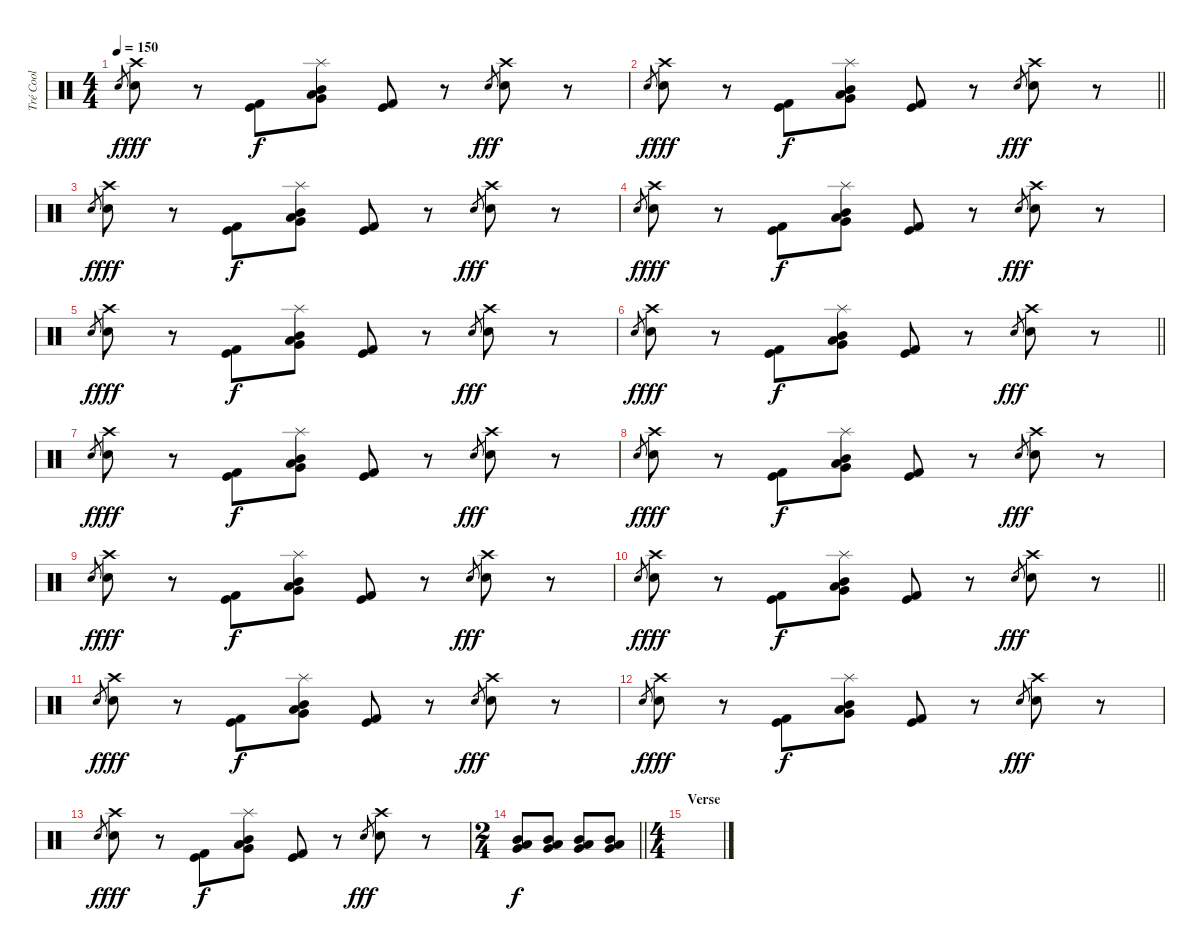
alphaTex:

\track ("Tré Cool" "Tré Cool") {instrument percussion}
\staff {score}
\articulation defaults
\ts (4 4)
\tempo 150
\clef neutral
\ks c "Snare (hit) 2".8{gr dy f}
("Crash high (hit)" "Snare (hit) 2").8{dy fff} r.8 ("Kick (hit)" "Kick (hit) 2").8{dy f} ("Splash (hit)" "Mid Tom (hit)" "Low Tom (hit)" "Very Low Tom (hit)").8 ("Kick (hit)" "Kick (hit) 2").8 r.8 "Snare (hit) 2".8{gr dy fff} ("Crash high (hit)" "Snare (hit) 2").8 r.8 |
\barLineRight lightlight "Snare (hit) 2".8{gr dy f}
("Crash high (hit)" "Snare (hit) 2").8{dy fff} r.8 ("Kick (hit)" "Kick (hit) 2").8{dy f} ("Splash (hit)" "Mid Tom (hit)" "Low Tom (hit)" "Very Low Tom (hit)").8 ("Kick (hit)" "Kick (hit) 2").8 r.8 "Snare (hit) 2".8{gr dy fff} ("Crash high (hit)" "Snare (hit) 2").8 r.8 |
"Snare (hit) 2".8{gr dy f} ("Crash high (hit)" "Snare (hit) 2").8{dy fff} r.8 ("Kick (hit)" "Kick (hit) 2").8{dy f} ("Splash (hit)" "Mid Tom (hit)" "Low Tom (hit)" "Very Low Tom (hit)").8 ("Kick (hit)" "Kick (hit) 2").8 r.8 "Snare (hit) 2".8{gr dy fff} ("Crash high (hit)" "Snare (hit) 2").8 r.8 |
"Snare (hit) 2".8{gr dy f} ("Crash high (hit)" "Snare (hit) 2").8{dy fff} r.8 ("Kick (hit)" "Kick (hit) 2").8{dy f} ("Splash (hit)" "Mid Tom (hit)" "Low Tom (hit)" "Very Low Tom (hit)").8 ("Kick (hit)" "Kick (hit) 2").8 r.8 "Snare (hit) 2".8{gr dy fff} ("Crash high (hit)" "Snare (hit) 2").8 r.8 |
"Snare (hit) 2".8{gr dy f} ("Crash high (hit)" "Snare (hit) 2").8{dy fff} r.8 ("Kick (hit)" "Kick (hit) 2").8{dy f} ("Splash (hit)" "Mid Tom (hit)" "Low Tom (hit)" "Very Low Tom (hit)").8 ("Kick (hit)" "Kick (hit) 2").8 r.8 "Snare (hit) 2".8{gr dy fff} ("Crash high (hit)" "Snare (hit) 2").8 r.8 |
\barLineRight lightlight "Snare (hit) 2".8{gr dy f}
("Crash high (hit)" "Snare (hit) 2").8{dy fff} r.8 ("Kick (hit)" "Kick (hit) 2").8{dy f} ("Splash (hit)" "Mid Tom (hit)" "Low Tom (hit)" "Very Low Tom (hit)").8 ("Kick (hit)" "Kick (hit) 2").8 r.8 "Snare (hit) 2".8{gr dy fff} ("Crash high (hit)" "Snare (hit) 2").8 r.8 |
"Snare (hit) 2".8{gr dy f} ("Crash high (hit)" "Snare (hit) 2").8{dy fff} r.8 ("Kick (hit)" "Kick (hit) 2").8{dy f} ("Splash (hit)" "Mid Tom (hit)" "Low Tom (hit)" "Very Low Tom (hit)").8 ("Kick (hit)" "Kick (hit) 2").8 r.8 "Snare (hit) 2".8{gr dy fff} ("Crash high (hit)" "Snare (hit) 2").8 r.8 |
"Snare (hit) 2".8{gr dy f} ("Crash high (hit)" "Snare (hit) 2").8{dy fff} r.8 ("Kick (hit)" "Kick (hit) 2").8{dy f} ("Splash (hit)" "Mid Tom (hit)" "Low Tom (hit)" "Very Low Tom (hit)").8 ("Kick (hit)" "Kick (hit) 2").8 r.8 "Snare (hit) 2".8{gr dy fff} ("Crash high (hit)" "Snare (hit) 2").8 r.8 |
"Snare (hit) 2".8{gr dy f} ("Crash high (hit)" "Snare (hit) 2").8{dy fff} r.8 ("Kick (hit)" "Kick (hit) 2").8{dy f} ("Splash (hit)" "Mid Tom (hit)" "Low Tom (hit)" "Very Low Tom (hit)").8 ("Kick (hit)" "Kick (hit) 2").8 r.8 "Snare (hit) 2".8{gr dy fff} ("Crash high (hit)" "Snare (hit) 2").8 r.8 |
\barLineRight lightlight "Snare (hit) 2".8{gr dy f}
("Crash high (hit)" "Snare (hit) 2").8{dy fff} r.8 ("Kick (hit)" "Kick (hit) 2").8{dy f} ("Splash (hit)" "Mid Tom (hit)" "Low Tom (hit)" "Very Low Tom (hit)").8 ("Kick (hit)" "Kick (hit) 2").8 r.8 "Snare (hit) 2".8{gr dy fff} ("Crash high (hit)" "Snare (hit) 2").8 r.8 |
"Snare (hit) 2".8{gr dy f} ("Crash high (hit)" "Snare (hit) 2").8{dy fff} r.8 ("Kick (hit)" "Kick (hit) 2").8{dy f} ("Splash (hit)" "Mid Tom (hit)" "Low Tom (hit)" "Very Low Tom (hit)").8 ("Kick (hit)" "Kick (hit) 2").8 r.8 "Snare (hit) 2".8{gr dy fff} ("Crash high (hit)" "Snare (hit) 2").8 r.8 |
"Snare (hit) 2".8{gr dy f} ("Crash high (hit)" "Snare (hit) 2").8{dy fff} r.8 ("Kick (hit)" "Kick (hit) 2").8{dy f} ("Splash (hit)" "Mid Tom (hit)" "Low Tom (hit)" "Very Low Tom (hit)").8 ("Kick (hit)" "Kick (hit) 2").8 r.8 "Snare (hit) 2".8{gr dy fff} ("Crash high (hit)" "Snare (hit) 2").8 r.8 |
"Snare (hit) 2".8{gr dy f} ("Crash high (hit)" "Snare (hit) 2").8{dy fff} r.8 ("Kick (hit)" "Kick (hit) 2").8{dy f} ("Splash (hit)" "Mid Tom (hit)" "Low Tom (hit)" "Very Low Tom (hit)").8 ("Kick (hit)" "Kick (hit) 2").8 r.8 "Snare (hit) 2".8{gr dy fff} ("Crash high (hit)" "Snare (hit) 2").8 r.8 |
\ts (2 4)
\barLineRight lightlight
("Mid Tom (hit)" "Low Tom (hit)" "Very Low Tom (hit)").8{dy f} ("Mid Tom (hit)" "Low Tom (hit)" "Very Low Tom (hit)").8 ("Mid Tom (hit)" "Low Tom (hit)" "Very Low Tom (hit)").8 ("Mid Tom (hit)" "Low Tom (hit)" "Very Low Tom (hit)").8 |
\ts (4 4)
\section ("" "Verse")
